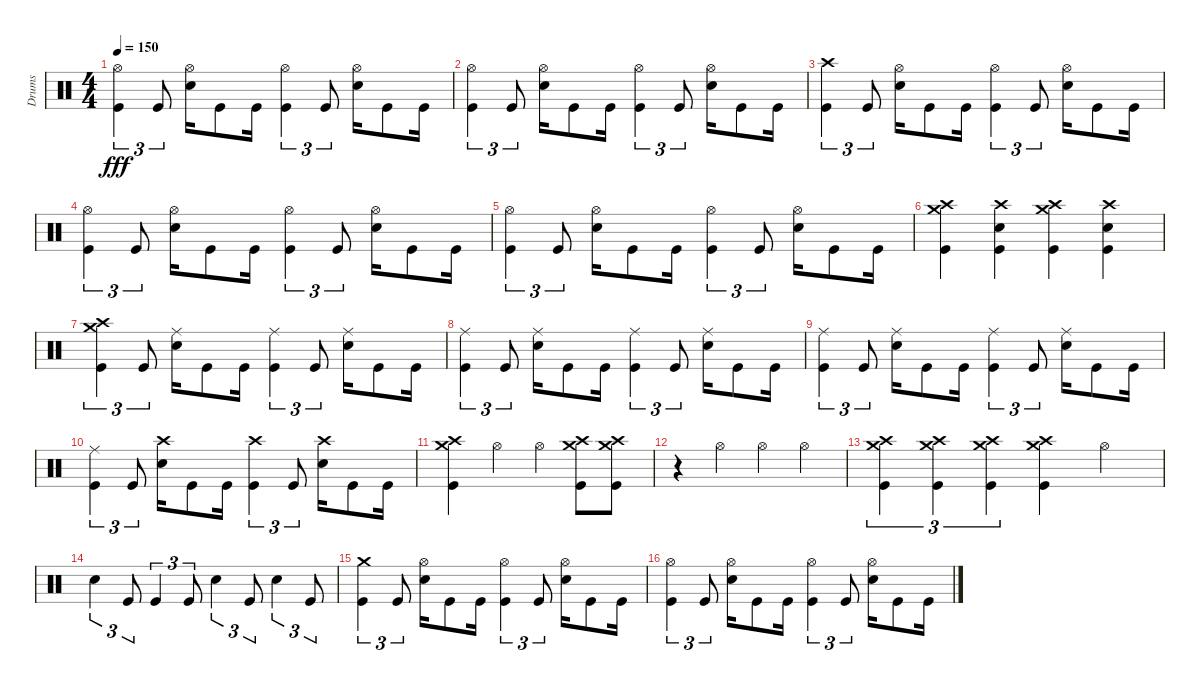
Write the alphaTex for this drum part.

\track ("Drums" "Drums") {instrument percussion}
\staff {score}
\articulation defaults
\ts (4 4)
\tempo 150
\clef neutral
\ks c
("Hi-Hat (open)" "Kick (hit)").4{tu (3 2) dy fff} "Kick (hit)".8{tu (3 2)} ("Hi-Hat (open)" "Snare (hit) 2").16 "Kick (hit)".8 "Kick (hit)".16 ("Hi-Hat (open)" "Kick (hit)").4{tu (3 2)} "Kick (hit)".8{tu (3 2)} ("Hi-Hat (open)" "Snare (hit) 2").16 "Kick (hit)".8 "Kick (hit)".16 |
("Hi-Hat (open)" "Kick (hit)").4{tu (3 2)} "Kick (hit)".8{tu (3 2)} ("Hi-Hat (open)" "Snare (hit) 2").16 "Kick (hit)".8 "Kick (hit)".16 ("Hi-Hat (open)" "Kick (hit)").4{tu (3 2)} "Kick (hit)".8{tu (3 2)} ("Hi-Hat (open)" "Snare (hit) 2").16 "Kick (hit)".8 "Kick (hit)".16 |
("Crash high (hit)" "Kick (hit)").4{tu (3 2)} "Kick (hit)".8{tu (3 2)} ("Hi-Hat (open)" "Snare (hit) 2").16 "Kick (hit)".8 "Kick (hit)".16 ("Hi-Hat (open)" "Kick (hit)").4{tu (3 2)} "Kick (hit)".8{tu (3 2)} ("Hi-Hat (open)" "Snare (hit) 2").16 "Kick (hit)".8 "Kick (hit)".16 |
("Hi-Hat (open)" "Kick (hit)").4{tu (3 2)} "Kick (hit)".8{tu (3 2)} ("Hi-Hat (open)" "Snare (hit) 2").16 "Kick (hit)".8 "Kick (hit)".16 ("Hi-Hat (open)" "Kick (hit)").4{tu (3 2)} "Kick (hit)".8{tu (3 2)} ("Hi-Hat (open)" "Snare (hit) 2").16 "Kick (hit)".8 "Kick (hit)".16 |
("Hi-Hat (open)" "Kick (hit)").4{tu (3 2)} "Kick (hit)".8{tu (3 2)} ("Hi-Hat (open)" "Snare (hit) 2").16 "Kick (hit)".8 "Kick (hit)".16 ("Hi-Hat (open)" "Kick (hit)").4{tu (3 2)} "Kick (hit)".8{tu (3 2)} ("Hi-Hat (open)" "Snare (hit) 2").16 "Kick (hit)".8 "Kick (hit)".16 |
("Crash medium (hit)" "Crash high (hit)" "Kick (hit)").4 ("Crash high (hit)" "Snare (hit) 2" "Kick (hit)").4 ("Crash medium (hit)" "Crash high (hit)" "Kick (hit)").4 ("Crash high (hit)" "Snare (hit) 2" "Kick (hit)").4 |
("Crash medium (hit)" "Crash high (hit)" "Kick (hit)").4{tu (3 2)} "Kick (hit)".8{tu (3 2)} ("Ride (middle)" "Snare (hit) 2").16 "Kick (hit)".8 "Kick (hit)".16 ("Ride (middle)" "Kick (hit)").4{tu (3 2)} "Kick (hit)".8{tu (3 2)} ("Ride (middle)" "Snare (hit) 2").16 "Kick (hit)".8 "Kick (hit)".16 |
("Ride (middle)" "Kick (hit)").4{tu (3 2)} "Kick (hit)".8{tu (3 2)} ("Ride (middle)" "Snare (hit) 2").16 "Kick (hit)".8 "Kick (hit)".16 ("Ride (middle)" "Kick (hit)").4{tu (3 2)} "Kick (hit)".8{tu (3 2)} ("Ride (middle)" "Snare (hit) 2").16 "Kick (hit)".8 "Kick (hit)".16 |
("Ride (middle)" "Kick (hit)").4{tu (3 2)} "Kick (hit)".8{tu (3 2)} ("Ride (middle)" "Snare (hit) 2").16 "Kick (hit)".8 "Kick (hit)".16 ("Ride (middle)" "Kick (hit)").4{tu (3 2)} "Kick (hit)".8{tu (3 2)} ("Ride (middle)" "Snare (hit) 2").16 "Kick (hit)".8 "Kick (hit)".16 |
("Ride (middle)" "Kick (hit)").4{tu (3 2)} "Kick (hit)".8{tu (3 2)} ("Crash high (hit)" "Snare (hit) 2").16 "Kick (hit)".8 "Kick (hit)".16 ("Crash high (hit)" "Kick (hit)").4{tu (3 2)} "Kick (hit)".8{tu (3 2)} ("Crash high (hit)" "Snare (hit) 2").16 "Kick (hit)".8 "Kick (hit)".16 |
("Crash medium (hit)" "Crash high (hit)" "Kick (hit)").4 "Hi-Hat (open)".4 "Hi-Hat (open)".4 ("Crash medium (hit)" "Crash high (hit)" "Kick (hit)").8 ("Crash medium (hit)" "Crash high (hit)" "Kick (hit)").8 |
r.4 "Hi-Hat (open)".4 "Hi-Hat (open)".4 "Hi-Hat (open)".4 |
("Crash medium (hit)" "Crash high (hit)" "Kick (hit)").4{tu (3 2)} ("Crash medium (hit)" "Crash high (hit)" "Kick (hit)").4{tu (3 2)} ("Crash medium (hit)" "Crash high (hit)" "Kick (hit)").4{tu (3 2)} ("Crash medium (hit)" "Crash high (hit)" "Kick (hit)").4 "Hi-Hat (open)".4 |
"Snare (hit) 2".4{tu (3 2)} "Kick (hit)".8{tu (3 2)} "Kick (hit)".4{tu (3 2)} "Kick (hit)".8{tu (3 2)} "Snare (hit) 2".4{tu (3 2)} "Kick (hit)".8{tu (3 2)} "Snare (hit) 2".4{tu (3 2)} "Kick (hit)".8{tu (3 2)} |
("Crash medium (hit)" "Kick (hit)").4{tu (3 2)} "Kick (hit)".8{tu (3 2)} ("Hi-Hat (open)" "Snare (hit) 2").16 "Kick (hit)".8 "Kick (hit)".16 ("Hi-Hat (open)" "Kick (hit)").4{tu (3 2)} "Kick (hit)".8{tu (3 2)} ("Hi-Hat (open)" "Snare (hit) 2").16 "Kick (hit)".8 "Kick (hit)".16 |
("Hi-Hat (open)" "Kick (hit)").4{tu (3 2)} "Kick (hit)".8{tu (3 2)} ("Hi-Hat (open)" "Snare (hit) 2").16 "Kick (hit)".8 "Kick (hit)".16 ("Hi-Hat (open)" "Kick (hit)").4{tu (3 2)} "Kick (hit)".8{tu (3 2)} ("Hi-Hat (open)" "Snare (hit) 2").16 "Kick (hit)".8 "Kick (hit)".16
